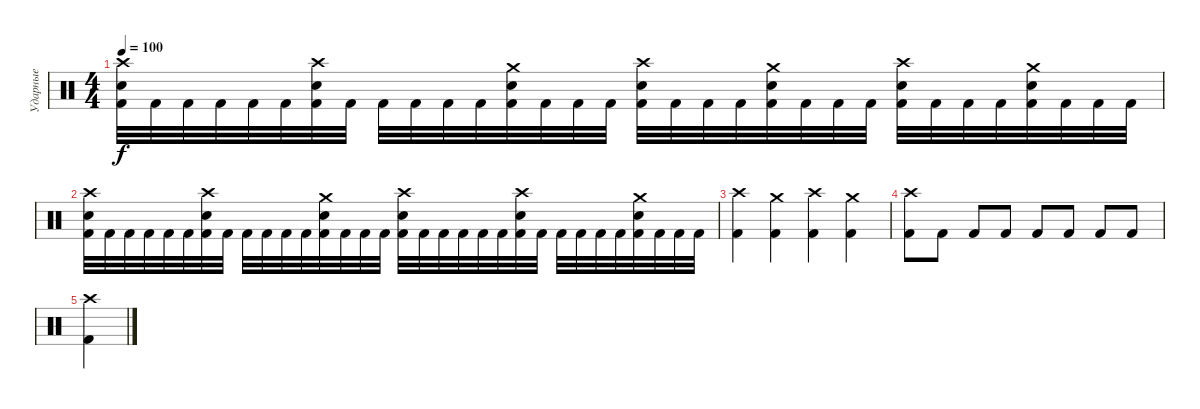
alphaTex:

\track ("Ударные" "Ударные") {instrument percussion}
\staff {score}
\articulation defaults
\ts (4 4)
\tempo 100
\clef neutral
\ks c
("Crash high (hit)" "Electric Snare (hit)" "Kick (hit) 2").32{dy f} "Kick (hit) 2".32 "Kick (hit) 2".32 "Kick (hit) 2".32 "Kick (hit) 2".32 "Kick (hit) 2".32 ("Crash high (hit)" "Electric Snare (hit)" "Kick (hit) 2").32 "Kick (hit) 2".32 "Kick (hit) 2".32 "Kick (hit) 2".32 "Kick (hit) 2".32 "Kick (hit) 2".32 ("Crash medium (hit)" "Electric Snare (hit)" "Kick (hit) 2").32 "Kick (hit) 2".32 "Kick (hit) 2".32 "Kick (hit) 2".32 ("Crash high (hit)" "Electric Snare (hit)" "Kick (hit) 2").32 "Kick (hit) 2".32 "Kick (hit) 2".32 "Kick (hit) 2".32 ("Crash medium (hit)" "Electric Snare (hit)" "Kick (hit) 2").32 "Kick (hit) 2".32 "Kick (hit) 2".32 "Kick (hit) 2".32 ("Crash high (hit)" "Electric Snare (hit)" "Kick (hit) 2").32 "Kick (hit) 2".32 "Kick (hit) 2".32 "Kick (hit) 2".32 ("Crash medium (hit)" "Electric Snare (hit)" "Kick (hit) 2").32 "Kick (hit) 2".32 "Kick (hit) 2".32 "Kick (hit) 2".32 |
("Crash high (hit)" "Electric Snare (hit)" "Kick (hit) 2").32 "Kick (hit) 2".32 "Kick (hit) 2".32 "Kick (hit) 2".32 "Kick (hit) 2".32 "Kick (hit) 2".32 ("Crash high (hit)" "Electric Snare (hit)" "Kick (hit) 2").32 "Kick (hit) 2".32 "Kick (hit) 2".32 "Kick (hit) 2".32 "Kick (hit) 2".32 "Kick (hit) 2".32 ("Crash medium (hit)" "Electric Snare (hit)" "Kick (hit) 2").32 "Kick (hit) 2".32 "Kick (hit) 2".32 "Kick (hit) 2".32 ("Crash high (hit)" "Electric Snare (hit)" "Kick (hit) 2").32 "Kick (hit) 2".32 "Kick (hit) 2".32 "Kick (hit) 2".32 "Kick (hit) 2".32 "Kick (hit) 2".32 ("Crash high (hit)" "Electric Snare (hit)" "Kick (hit) 2").32 "Kick (hit) 2".32 "Kick (hit) 2".32 "Kick (hit) 2".32 "Kick (hit) 2".32 "Kick (hit) 2".32 ("Crash medium (hit)" "Electric Snare (hit)" "Kick (hit) 2").32 "Kick (hit) 2".32 "Kick (hit) 2".32 "Kick (hit) 2".32 |
("Crash high (hit)" "Kick (hit) 2").4 ("Crash medium (hit)" "Kick (hit) 2").4 ("Crash high (hit)" "Kick (hit) 2").4 ("Crash medium (hit)" "Kick (hit) 2").4 |
("Crash high (hit)" "Kick (hit) 2").8 "Kick (hit) 2".8 "Kick (hit) 2".8 "Kick (hit) 2".8 "Kick (hit) 2".8 "Kick (hit) 2".8 "Kick (hit) 2".8 "Kick (hit) 2".8 |
("Crash high (hit)" "Kick (hit) 2").4
